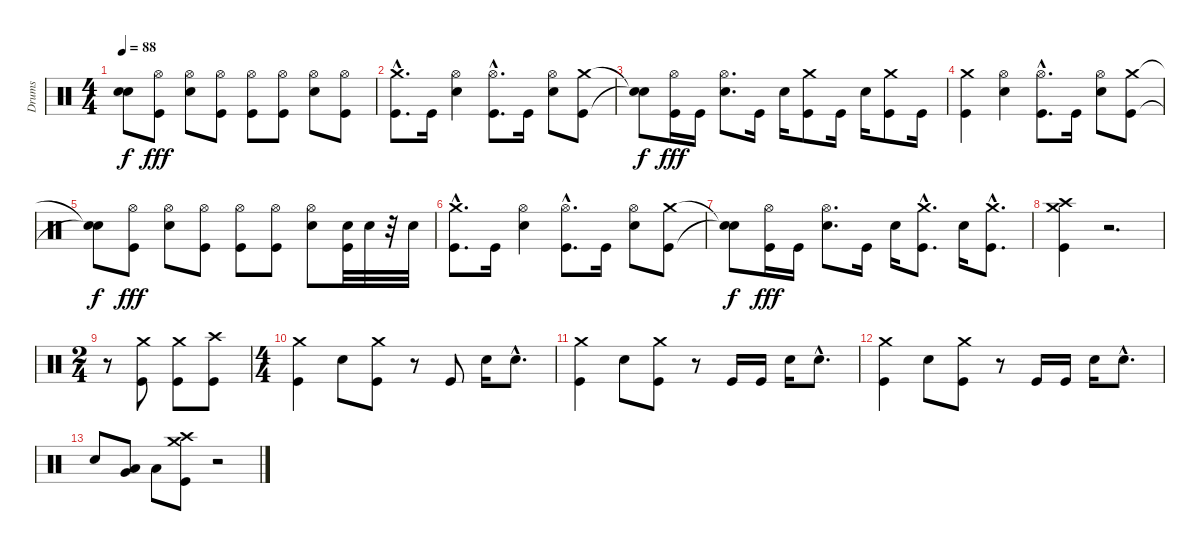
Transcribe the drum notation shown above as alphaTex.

\track ("Drums" "Drums") {instrument percussion}
\staff {score}
\articulation defaults
\ts (4 4)
\tempo 88
\clef neutral
\ks c
("Snare (hit)"{t} "Snare (hit)"{t}).8{dy f} ("Hi-Hat (open)" "Kick (hit)").8{dy fff} ("Electric Snare (hit)" "Hi-Hat (open)").8 ("Kick (hit)" "Hi-Hat (open)").8 ("Hi-Hat (open)" "Kick (hit)").8 ("Kick (hit)" "Hi-Hat (open)").8 ("Electric Snare (hit)" "Hi-Hat (open)").8 ("Hi-Hat (open)" "Kick (hit)").8 |
("Kick (hit)"{hac} "Crash medium (hit)").8{d} "Kick (hit)".16 ("Hi-Hat (open)" "Electric Snare (hit)").4 ("Hi-Hat (open)" "Kick (hit)"{hac}).8{d} "Kick (hit)".16 ("Electric Snare (hit)" "Hi-Hat (open)").8 ("Kick (hit)" "Crash medium (hit)").8 |
("Snare (hit)"{t} "Snare (hit)"{t}).8{dy f} ("Hi-Hat (open)" "Kick (hit)").16{dy fff} "Kick (hit)".16 ("Hi-Hat (open)" "Electric Snare (hit)").8{d} "Kick (hit)".16 "Electric Snare (hit)".16 ("Crash medium (hit)" "Kick (hit)").8 "Kick (hit)".16 "Electric Snare (hit)".16 ("Crash medium (hit)" "Kick (hit)").8 "Kick (hit)".16 |
("Kick (hit)" "Crash medium (hit)").4 ("Electric Snare (hit)" "Hi-Hat (open)").4 ("Hi-Hat (open)" "Kick (hit)"{hac}).8{d} "Kick (hit)".16 ("Electric Snare (hit)" "Hi-Hat (open)").8 ("Crash medium (hit)" "Kick (hit)").8 |
("Snare (hit)"{t} "Snare (hit)"{t}).8{dy f} ("Kick (hit)" "Hi-Hat (open)").8{dy fff} ("Electric Snare (hit)" "Hi-Hat (open)").8 ("Hi-Hat (open)" "Kick (hit)").8 ("Kick (hit)" "Hi-Hat (open)").8 ("Kick (hit)" "Hi-Hat (open)").8 ("Hi-Hat (open)" "Electric Snare (hit)").8 ("Kick (hit)" "Electric Snare (hit)").32 "Electric Snare (hit)".32 r.32 "Electric Snare (hit)".32 |
("Kick (hit)"{hac} "Crash medium (hit)").8{d} "Kick (hit)".16 ("Hi-Hat (open)" "Electric Snare (hit)").4 ("Kick (hit)"{hac} "Hi-Hat (open)").8{d} "Kick (hit)".16 ("Electric Snare (hit)" "Hi-Hat (open)").8 ("Kick (hit)" "Crash medium (hit)").8 |
("Snare (hit)"{t} "Snare (hit)"{t}).8{dy f} ("Hi-Hat (open)" "Kick (hit)").16{dy fff} "Kick (hit)".16 ("Hi-Hat (open)" "Electric Snare (hit)").8{d} "Kick (hit)".16 "Electric Snare (hit)".16 ("Crash medium (hit)" "Kick (hit)"{hac}).8{d} "Electric Snare (hit)".16 ("Crash medium (hit)" "Kick (hit)"{hac}).8{d} |
("Kick (hit)" "Crash high (hit)" "Crash medium (hit)").4 r.2{d} |
\ts (2 4)
r.8 ("Kick (hit)" "Crash medium (hit)").8 ("Kick (hit)" "Crash medium (hit)").8 ("Kick (hit)" "Crash high (hit)").8 |
\ts (4 4)
("Kick (hit)" "Crash medium (hit)").4 "Electric Snare (hit)".8 ("Crash medium (hit)" "Kick (hit)").8 r.8 "Kick (hit)".8 "Electric Snare (hit)".16 "Electric Snare (hit)"{hac}.8{d} |
("Kick (hit)" "Crash medium (hit)").4 "Electric Snare (hit)".8 ("Crash medium (hit)" "Kick (hit)").8 r.8 "Kick (hit)".16 "Kick (hit)".16 "Electric Snare (hit)".16 "Electric Snare (hit)"{hac}.8{d} |
("Kick (hit)" "Crash medium (hit)").4 "Electric Snare (hit)".8 ("Crash medium (hit)" "Kick (hit)").8 r.8 "Kick (hit)".16 "Kick (hit)".16 "Electric Snare (hit)".16 "Electric Snare (hit)"{hac}.8{d} |
"Electric Snare (hit)".8 ("Very Low Tom (hit)" "Low Floor Tom (hit)").8 "Low Floor Tom (hit)".8 ("Crash high (hit)" "Crash medium (hit)" "Kick (hit)").8 r.2
